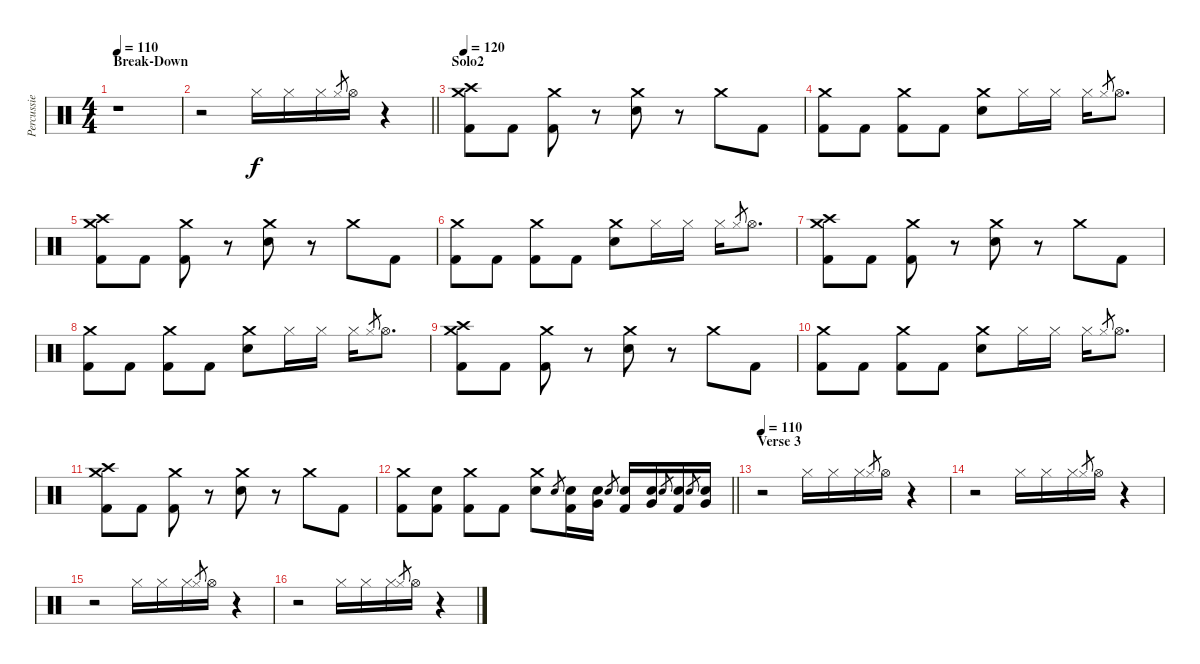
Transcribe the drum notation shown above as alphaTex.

\track ("Percussie" "Percussie") {instrument percussion}
\staff {score}
\articulation defaults
\ts (4 4)
\section ("" "Break-Down")
\tempo 110
\clef neutral
\ks c
r.1{dy f} |
\barLineRight lightlight
r.2 "Hi-Hat (closed)".16 "Hi-Hat (closed)".16 "Hi-Hat (closed)".16 "Hi-Hat (closed)"{sl x}.8{gr} "Hi-Hat (open)".16 r.4 |
\section ("" "Solo2")
\tempo 120
("Crash high (hit)" "Crash medium (hit)" "Kick (hit) 2").8 "Kick (hit) 2".8 ("Crash medium (hit)" "Kick (hit) 2").8 r.8 ("Crash medium (hit)" "Electric Snare (hit)").8 r.8 "Crash medium (hit)".8 "Kick (hit) 2".8 |
("Crash medium (hit)" "Kick (hit) 2").8 "Kick (hit) 2".8 ("Crash medium (hit)" "Kick (hit) 2").8 "Kick (hit) 2".8 ("Crash medium (hit)" "Electric Snare (hit)").8 "Hi-Hat (closed)".16 "Hi-Hat (closed)".16 "Hi-Hat (closed)".16 "Hi-Hat (closed)"{sl x}.8{gr} "Hi-Hat (open)".8{d} |
("Crash high (hit)" "Crash medium (hit)" "Kick (hit) 2").8 "Kick (hit) 2".8 ("Crash medium (hit)" "Kick (hit) 2").8 r.8 ("Crash medium (hit)" "Electric Snare (hit)").8 r.8 "Crash medium (hit)".8 "Kick (hit) 2".8 |
("Crash medium (hit)" "Kick (hit) 2").8 "Kick (hit) 2".8 ("Crash medium (hit)" "Kick (hit) 2").8 "Kick (hit) 2".8 ("Crash medium (hit)" "Electric Snare (hit)").8 "Hi-Hat (closed)".16 "Hi-Hat (closed)".16 "Hi-Hat (closed)".16 "Hi-Hat (closed)"{sl x}.8{gr} "Hi-Hat (open)".8{d} |
("Crash high (hit)" "Crash medium (hit)" "Kick (hit) 2").8 "Kick (hit) 2".8 ("Crash medium (hit)" "Kick (hit) 2").8 r.8 ("Crash medium (hit)" "Electric Snare (hit)").8 r.8 "Crash medium (hit)".8 "Kick (hit) 2".8 |
("Crash medium (hit)" "Kick (hit) 2").8 "Kick (hit) 2".8 ("Crash medium (hit)" "Kick (hit) 2").8 "Kick (hit) 2".8 ("Crash medium (hit)" "Electric Snare (hit)").8 "Hi-Hat (closed)".16 "Hi-Hat (closed)".16 "Hi-Hat (closed)".16 "Hi-Hat (closed)"{sl x}.8{gr} "Hi-Hat (open)".8{d} |
("Crash high (hit)" "Crash medium (hit)" "Kick (hit) 2").8 "Kick (hit) 2".8 ("Crash medium (hit)" "Kick (hit) 2").8 r.8 ("Crash medium (hit)" "Electric Snare (hit)").8 r.8 "Crash medium (hit)".8 "Kick (hit) 2".8 |
("Crash medium (hit)" "Kick (hit) 2").8 "Kick (hit) 2".8 ("Crash medium (hit)" "Kick (hit) 2").8 "Kick (hit) 2".8 ("Crash medium (hit)" "Electric Snare (hit)").8 "Hi-Hat (closed)".16 "Hi-Hat (closed)".16 "Hi-Hat (closed)".16 "Hi-Hat (closed)"{sl x}.8{gr} "Hi-Hat (open)".8{d} |
("Crash high (hit)" "Crash medium (hit)" "Kick (hit) 2").8 "Kick (hit) 2".8 ("Crash medium (hit)" "Kick (hit) 2").8 r.8 ("Crash medium (hit)" "Electric Snare (hit)").8 r.8 "Crash medium (hit)".8 "Kick (hit) 2".8 |
\barLineRight lightlight
("Crash medium (hit)" "Kick (hit) 2").8 ("Electric Snare (hit)" "Kick (hit) 2").8 ("Crash medium (hit)" "Kick (hit) 2").8 "Kick (hit) 2".8 ("Crash medium (hit)" "Electric Snare (hit)").8 "Electric Snare (hit)".8{gr} ("Electric Snare (hit)" "Kick (hit) 2").16 ("Electric Snare (hit)" "Very Low Tom (hit)").16 "Electric Snare (hit)".8{gr} ("Electric Snare (hit)" "Kick (hit) 2").16 ("Electric Snare (hit)" "Very Low Tom (hit)").16 "Electric Snare (hit)".8{gr} ("Electric Snare (hit)" "Kick (hit) 2").16 "Electric Snare (hit)".8{gr} ("Electric Snare (hit)" "Very Low Tom (hit)").16 |
\section ("" "Verse 3")
\tempo 110
r.2 "Hi-Hat (closed)".16 "Hi-Hat (closed)".16 "Hi-Hat (closed)".16 "Hi-Hat (closed)"{sl x}.8{gr} "Hi-Hat (open)".16 r.4 |
r.2 "Hi-Hat (closed)".16 "Hi-Hat (closed)".16 "Hi-Hat (closed)".16 "Hi-Hat (closed)"{sl x}.8{gr} "Hi-Hat (open)".16 r.4 |
r.2 "Hi-Hat (closed)".16 "Hi-Hat (closed)".16 "Hi-Hat (closed)".16 "Hi-Hat (closed)"{sl x}.8{gr} "Hi-Hat (open)".16 r.4 |
r.2 "Hi-Hat (closed)".16 "Hi-Hat (closed)".16 "Hi-Hat (closed)".16 "Hi-Hat (closed)"{sl x}.8{gr} "Hi-Hat (open)".16 r.4
